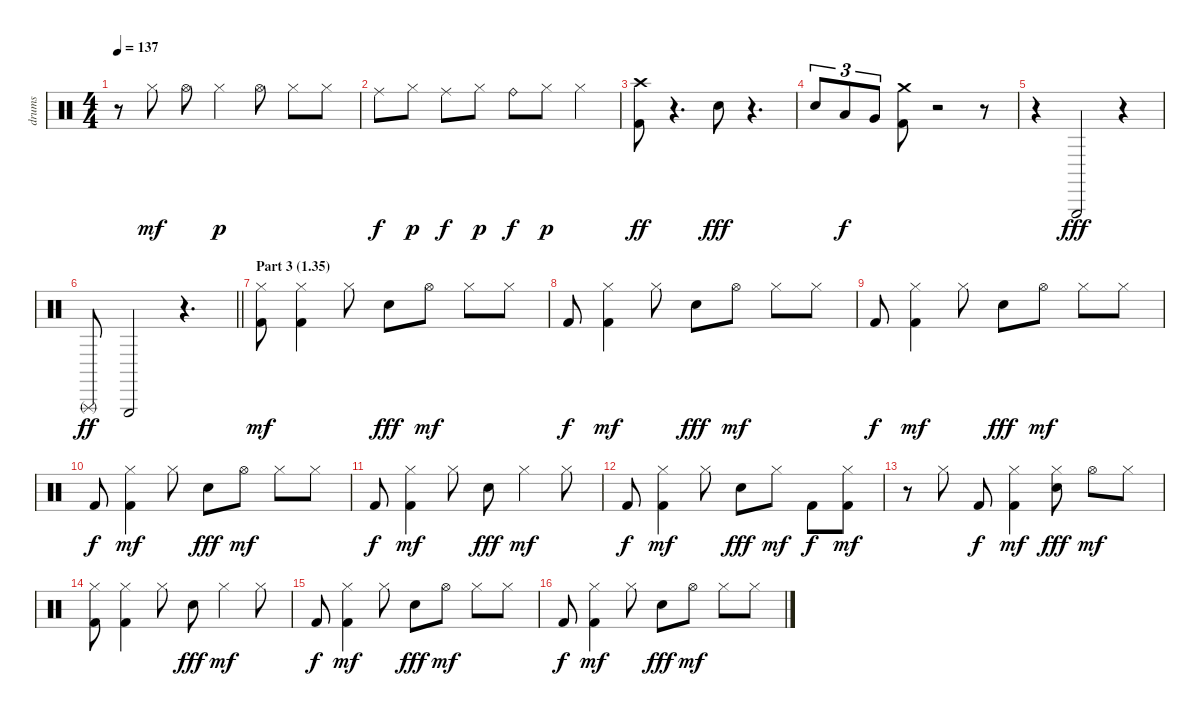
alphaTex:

\track ("drums" "drums") {instrument percussion}
\staff {score}
\articulation defaults
\ts (4 4)
\tempo 137
\clef neutral
\ks c
r.8{dy p} "Hi-Hat (closed)".8{dy mf} "Hi-Hat (open)".8 "Hi-Hat (closed)".4{dy p} "Hi-Hat (open)".8 "Hi-Hat (closed)".8 "Hi-Hat (closed)".8 |
"Ride (middle)".8{dy f} "Hi-Hat (closed)".8{dy p} "Ride (middle)".8{dy f} "Hi-Hat (closed)".8{dy p} "Ride (bell)".8{dy f} "Hi-Hat (closed)".8{dy p} "Hi-Hat (closed)".4 |
("Crash high (hit)" "Kick (hit) 2").8{dy ff} r.4{d} "Electric Snare (hit)".8{dy fff} r.4{d} |
"Electric Snare (hit)".8{tu (3 2)} "Low Tom (hit)".8{tu (3 2) dy f} "Very Low Tom (hit)".8{tu (3 2)} ("Crash medium (hit)" "Kick (hit) 2").8 r.2 r.8 |
r.4 "Triangle (hit)".2{dy fff balance 0} r.4 |
\barLineRight lightlight "Triangle (rnute)".8{dy ff balance 16} "Triangle (hit)".2
r.4{d} |
\section ("" "Part 3 (1.35)")
("Kick (hit) 2" "Hi-Hat (closed)").8{dy mf balance 8} ("Hi-Hat (closed)" "Kick (hit) 2").4 "Hi-Hat (closed)".8 "Electric Snare (hit)".8{dy fff} "Hi-Hat (open)".8{dy mf} "Hi-Hat (closed)".8 "Hi-Hat (closed)".8 |
"Kick (hit) 2".8{dy f} ("Hi-Hat (closed)" "Kick (hit) 2").4{dy mf} "Hi-Hat (closed)".8 "Electric Snare (hit)".8{dy fff} "Hi-Hat (open)".8{dy mf} "Hi-Hat (closed)".8 "Hi-Hat (closed)".8 |
"Kick (hit) 2".8{dy f} ("Hi-Hat (closed)" "Kick (hit) 2").4{dy mf} "Hi-Hat (closed)".8 "Electric Snare (hit)".8{dy fff} "Hi-Hat (open)".8{dy mf} "Hi-Hat (closed)".8 "Hi-Hat (closed)".8 |
"Kick (hit) 2".8{dy f} ("Hi-Hat (closed)" "Kick (hit) 2").4{dy mf} "Hi-Hat (closed)".8 "Electric Snare (hit)".8{dy fff} "Hi-Hat (open)".8{dy mf} "Hi-Hat (closed)".8 "Hi-Hat (closed)".8 |
"Kick (hit) 2".8{dy f} ("Hi-Hat (closed)" "Kick (hit) 2").4{dy mf} "Hi-Hat (closed)".8 "Electric Snare (hit)".8{dy fff} "Hi-Hat (closed)".4{dy mf} "Hi-Hat (closed)".8 |
"Kick (hit) 2".8{dy f} ("Hi-Hat (closed)" "Kick (hit) 2").4{dy mf} "Hi-Hat (closed)".8 "Electric Snare (hit)".8{dy fff} "Hi-Hat (closed)".8{dy mf} "Kick (hit) 2".8{dy f} ("Hi-Hat (closed)" "Kick (hit) 2").8{dy mf} |
r.8 "Hi-Hat (closed)".8 "Kick (hit) 2".8{dy f} ("Hi-Hat (closed)" "Kick (hit) 2").4{dy mf} ("Hi-Hat (closed)" "Electric Snare (hit)").8{dy fff} "Hi-Hat (open)".8{dy mf} "Hi-Hat (closed)".8 |
("Hi-Hat (closed)" "Kick (hit) 2").8 ("Hi-Hat (closed)" "Kick (hit) 2").4 "Hi-Hat (closed)".8 "Electric Snare (hit)".8{dy fff} "Hi-Hat (closed)".4{dy mf} "Hi-Hat (closed)".8 |
"Kick (hit) 2".8{dy f} ("Hi-Hat (closed)" "Kick (hit) 2").4{dy mf} "Hi-Hat (closed)".8 "Electric Snare (hit)".8{dy fff} "Hi-Hat (open)".8{dy mf} "Hi-Hat (closed)".8 "Hi-Hat (closed)".8 |
"Kick (hit) 2".8{dy f} ("Hi-Hat (closed)" "Kick (hit) 2").4{dy mf} "Hi-Hat (closed)".8 "Electric Snare (hit)".8{dy fff} "Hi-Hat (open)".8{dy mf} "Hi-Hat (closed)".8 "Hi-Hat (closed)".8
